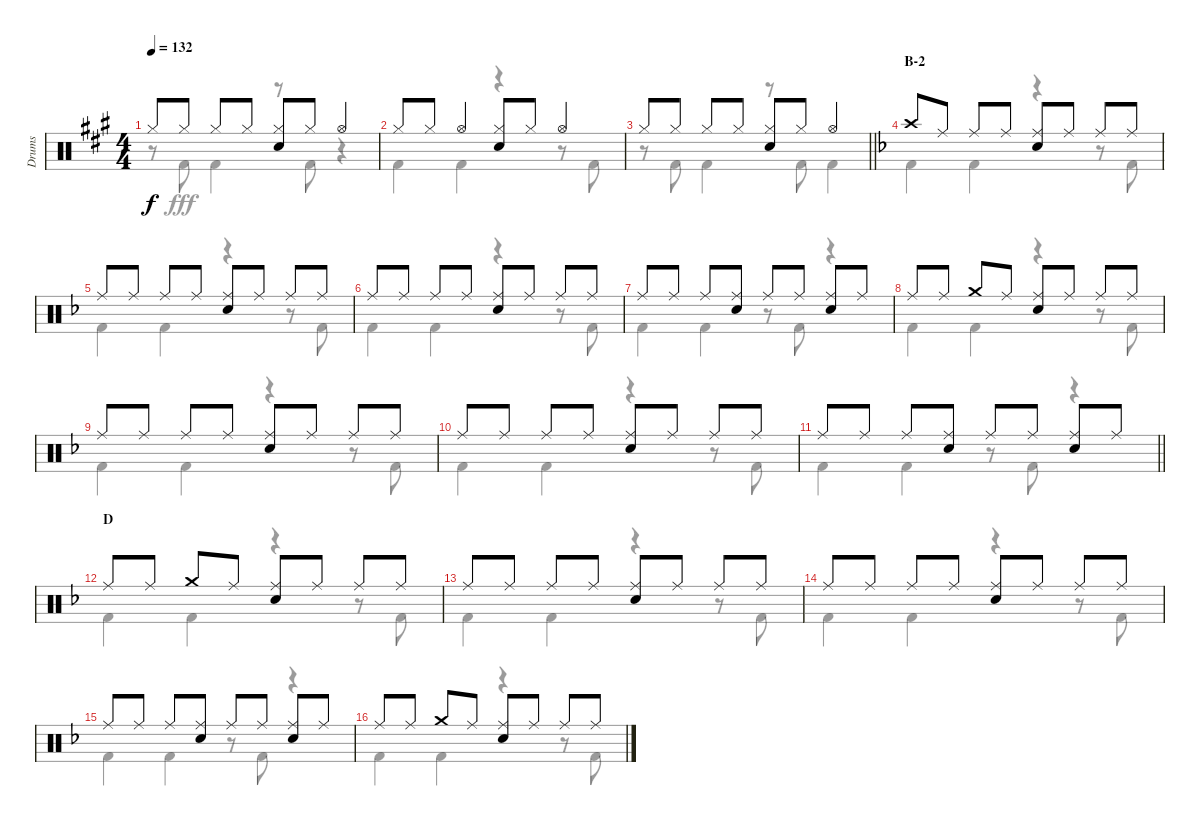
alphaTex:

\track ("Drums" "Drums") {instrument percussion}
\staff {score}
\articulation defaults
\voice
\ts (4 4)
\tempo 132
\clef neutral
\ks a "Hi-Hat (closed)".8{dy f} "Hi-Hat (closed)".8 "Hi-Hat (closed)".8 "Hi-Hat (closed)".8
("Hi-Hat (closed)" "Snare (hit) 2").8 "Hi-Hat (closed)".8 "Hi-Hat (open)".4 |
"Hi-Hat (closed)".8 "Hi-Hat (closed)".8 "Hi-Hat (open)".4 ("Hi-Hat (closed)" "Snare (hit) 2").8 "Hi-Hat (closed)".8 "Hi-Hat (open)".4 |
\barLineRight lightlight "Hi-Hat (closed)".8 "Hi-Hat (closed)".8 "Hi-Hat (closed)".8 "Hi-Hat (closed)".8
("Hi-Hat (closed)" "Snare (hit) 2").8 "Hi-Hat (closed)".8 "Hi-Hat (open)".4 |
\section ("" "B-2")
\ks f "Crash high (hit)".8 "Ride (middle)".8 "Ride (middle)".8 "Ride (middle)".8
("Ride (middle)" "Snare (hit) 2").8 "Ride (middle)".8 "Ride (middle)".8 "Ride (middle)".8 |
"Ride (middle)".8 "Ride (middle)".8 "Ride (middle)".8 "Ride (middle)".8 ("Ride (middle)" "Snare (hit) 2").8 "Ride (middle)".8 "Ride (middle)".8 "Ride (middle)".8 |
"Ride (middle)".8 "Ride (middle)".8 "Ride (middle)".8 "Ride (middle)".8 ("Ride (middle)" "Snare (hit) 2").8 "Ride (middle)".8 "Ride (middle)".8 "Ride (middle)".8 |
"Ride (middle)".8 "Ride (middle)".8 "Ride (middle)".8 ("Ride (middle)" "Snare (hit) 2").8 "Ride (middle)".8 "Ride (middle)".8 ("Ride (middle)" "Snare (hit) 2").8 "Ride (middle)".8 |
"Ride (middle)".8 "Ride (middle)".8 "Crash medium (hit)".8 "Ride (middle)".8 ("Ride (middle)" "Snare (hit) 2").8 "Ride (middle)".8 "Ride (middle)".8 "Ride (middle)".8 |
"Ride (middle)".8 "Ride (middle)".8 "Ride (middle)".8 "Ride (middle)".8 ("Ride (middle)" "Snare (hit) 2").8 "Ride (middle)".8 "Ride (middle)".8 "Ride (middle)".8 |
"Ride (middle)".8 "Ride (middle)".8 "Ride (middle)".8 "Ride (middle)".8 ("Ride (middle)" "Snare (hit) 2").8 "Ride (middle)".8 "Ride (middle)".8 "Ride (middle)".8 |
\barLineRight lightlight "Ride (middle)".8 "Ride (middle)".8 "Ride (middle)".8
("Ride (middle)" "Snare (hit) 2").8 "Ride (middle)".8 "Ride (middle)".8 ("Ride (middle)" "Snare (hit) 2").8 "Ride (middle)".8 |
\section ("" "D")
"Ride (middle)".8 "Ride (middle)".8 "Crash medium (hit)".8 "Ride (middle)".8 ("Ride (middle)" "Snare (hit) 2").8 "Ride (middle)".8 "Ride (middle)".8 "Ride (middle)".8 |
"Ride (middle)".8 "Ride (middle)".8 "Ride (middle)".8 "Ride (middle)".8 ("Ride (middle)" "Snare (hit) 2").8 "Ride (middle)".8 "Ride (middle)".8 "Ride (middle)".8 |
"Ride (middle)".8 "Ride (middle)".8 "Ride (middle)".8 "Ride (middle)".8 ("Ride (middle)" "Snare (hit) 2").8 "Ride (middle)".8 "Ride (middle)".8 "Ride (middle)".8 |
"Ride (middle)".8 "Ride (middle)".8 "Ride (middle)".8 ("Ride (middle)" "Snare (hit) 2").8 "Ride (middle)".8 "Ride (middle)".8 ("Ride (middle)" "Snare (hit) 2").8 "Ride (middle)".8 |
"Ride (middle)".8 "Ride (middle)".8 "Crash medium (hit)".8 "Ride (middle)".8 ("Ride (middle)" "Snare (hit) 2").8 "Ride (middle)".8 "Ride (middle)".8 "Ride (middle)".8
\voice
\clef neutral
\ottava regular
\simile none
\ks a
r.8{dy fff} "Kick (hit) 2".8 "Kick (hit) 2".4 r.8 "Kick (hit) 2".8 r.4 |
"Kick (hit) 2".4 "Kick (hit) 2".4 r.4 r.8 "Kick (hit) 2".8 |
\barLineRight lightlight
r.8 "Kick (hit) 2".8 "Kick (hit) 2".4 r.8 "Kick (hit) 2".8 "Kick (hit) 2".4 |
\ks f "Kick (hit) 2".4 "Kick (hit) 2".4
r.4 r.8 "Kick (hit) 2".8 |
"Kick (hit) 2".4 "Kick (hit) 2".4 r.4 r.8 "Kick (hit) 2".8 |
"Kick (hit) 2".4 "Kick (hit) 2".4 r.4 r.8 "Kick (hit) 2".8 |
"Kick (hit) 2".4 "Kick (hit) 2".4 r.8 "Kick (hit) 2".8 r.4 |
"Kick (hit) 2".4 "Kick (hit) 2".4 r.4 r.8 "Kick (hit) 2".8 |
"Kick (hit) 2".4 "Kick (hit) 2".4 r.4 r.8 "Kick (hit) 2".8 |
"Kick (hit) 2".4 "Kick (hit) 2".4 r.4 r.8 "Kick (hit) 2".8 |
\barLineRight lightlight "Kick (hit) 2".4 "Kick (hit) 2".4
r.8 "Kick (hit) 2".8 r.4 |
"Kick (hit) 2".4 "Kick (hit) 2".4 r.4 r.8 "Kick (hit) 2".8 |
"Kick (hit) 2".4 "Kick (hit) 2".4 r.4 r.8 "Kick (hit) 2".8 |
"Kick (hit) 2".4 "Kick (hit) 2".4 r.4 r.8 "Kick (hit) 2".8 |
"Kick (hit) 2".4 "Kick (hit) 2".4 r.8 "Kick (hit) 2".8 r.4 |
"Kick (hit) 2".4 "Kick (hit) 2".4 r.4 r.8 "Kick (hit) 2".8
